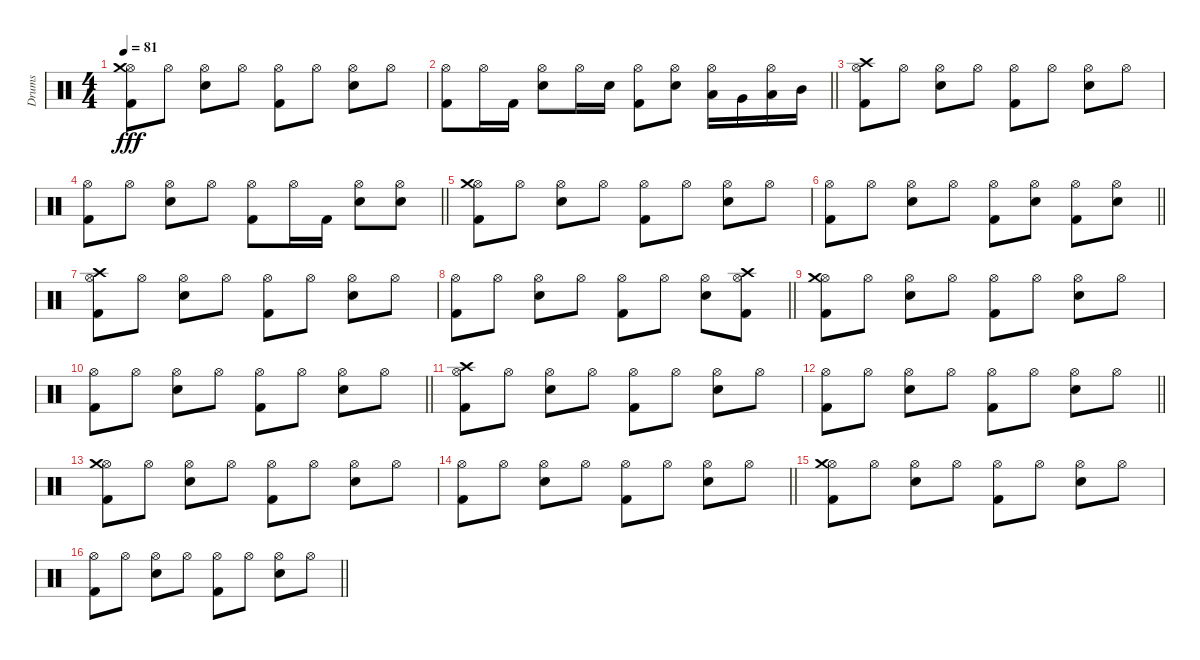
\track ("Drums" "Drums") {instrument percussion}
\staff {score}
\articulation defaults
\ts (4 4)
\tempo 81
\clef neutral
\ks c
("Hi-Hat (open)" "Crash medium (hit)" "Kick (hit) 2").8{dy fff} "Hi-Hat (open)".8 ("Hi-Hat (open)" "Electric Snare (hit)").8 "Hi-Hat (open)".8 ("Hi-Hat (open)" "Kick (hit) 2").8 "Hi-Hat (open)".8 ("Hi-Hat (open)" "Electric Snare (hit)").8 "Hi-Hat (open)".8 |
\barLineRight lightlight
("Hi-Hat (open)" "Kick (hit) 2").8 "Hi-Hat (open)".16 "Kick (hit) 2".16 ("Hi-Hat (open)" "Electric Snare (hit)").8 "Hi-Hat (open)".16 "Electric Snare (hit)".16 ("Hi-Hat (open)" "Kick (hit) 2").8 ("Hi-Hat (open)" "Electric Snare (hit)").8 ("Hi-Hat (open)" "Low Floor Tom (hit)").16 "Very Low Tom (hit)".16 ("Hi-Hat (open)" "Low Tom (hit)").16 "Mid Tom (hit)".16 |
("Hi-Hat (open)" "Crash high (hit)" "Kick (hit) 2").8{volume 10} "Hi-Hat (open)".8 ("Hi-Hat (open)" "Electric Snare (hit)").8 "Hi-Hat (open)".8 ("Hi-Hat (open)" "Kick (hit) 2").8 "Hi-Hat (open)".8 ("Hi-Hat (open)" "Electric Snare (hit)").8 "Hi-Hat (open)".8 |
\barLineRight lightlight
("Hi-Hat (open)" "Kick (hit) 2").8 "Hi-Hat (open)".8 ("Hi-Hat (open)" "Electric Snare (hit)").8 "Hi-Hat (open)".8 ("Hi-Hat (open)" "Kick (hit) 2").8 "Hi-Hat (open)".16 "Kick (hit) 2".16 ("Hi-Hat (open)" "Electric Snare (hit)").8 ("Hi-Hat (open)" "Electric Snare (hit)").8 |
("Hi-Hat (open)" "Crash medium (hit)" "Kick (hit) 2").8 "Hi-Hat (open)".8 ("Hi-Hat (open)" "Electric Snare (hit)").8 "Hi-Hat (open)".8 ("Hi-Hat (open)" "Kick (hit) 2").8 "Hi-Hat (open)".8 ("Hi-Hat (open)" "Electric Snare (hit)").8 "Hi-Hat (open)".8 |
\barLineRight lightlight
("Hi-Hat (open)" "Kick (hit) 2").8 "Hi-Hat (open)".8 ("Hi-Hat (open)" "Electric Snare (hit)").8 "Hi-Hat (open)".8 ("Hi-Hat (open)" "Kick (hit) 2").8 ("Hi-Hat (open)" "Electric Snare (hit)").8 ("Hi-Hat (open)" "Kick (hit) 2").8 ("Hi-Hat (open)" "Electric Snare (hit)").8 |
("Hi-Hat (open)" "Crash high (hit)" "Kick (hit) 2").8{volume 5} "Hi-Hat (open)".8 ("Hi-Hat (open)" "Electric Snare (hit)").8 "Hi-Hat (open)".8 ("Hi-Hat (open)" "Kick (hit) 2").8 "Hi-Hat (open)".8 ("Hi-Hat (open)" "Electric Snare (hit)").8 "Hi-Hat (open)".8 |
\barLineRight lightlight
("Hi-Hat (open)" "Kick (hit) 2").8 "Hi-Hat (open)".8 ("Hi-Hat (open)" "Electric Snare (hit)").8 "Hi-Hat (open)".8 ("Hi-Hat (open)" "Kick (hit) 2").8 "Hi-Hat (open)".8 ("Hi-Hat (open)" "Electric Snare (hit)").8 ("Hi-Hat (open)" "Crash high (hit)" "Kick (hit) 2").8 |
("Hi-Hat (open)" "Crash medium (hit)" "Kick (hit) 2").8 "Hi-Hat (open)".8 ("Hi-Hat (open)" "Electric Snare (hit)").8 "Hi-Hat (open)".8 ("Hi-Hat (open)" "Kick (hit) 2").8 "Hi-Hat (open)".8 ("Hi-Hat (open)" "Electric Snare (hit)").8 "Hi-Hat (open)".8 |
\barLineRight lightlight
("Hi-Hat (open)" "Kick (hit) 2").8 "Hi-Hat (open)".8 ("Hi-Hat (open)" "Electric Snare (hit)").8 "Hi-Hat (open)".8 ("Hi-Hat (open)" "Kick (hit) 2").8 "Hi-Hat (open)".8 ("Hi-Hat (open)" "Electric Snare (hit)").8 "Hi-Hat (open)".8 |
("Hi-Hat (open)" "Crash high (hit)" "Kick (hit) 2").8{volume 0} "Hi-Hat (open)".8 ("Hi-Hat (open)" "Electric Snare (hit)").8 "Hi-Hat (open)".8 ("Hi-Hat (open)" "Kick (hit) 2").8 "Hi-Hat (open)".8 ("Hi-Hat (open)" "Electric Snare (hit)").8 "Hi-Hat (open)".8 |
\barLineRight lightlight
("Hi-Hat (open)" "Kick (hit) 2").8 "Hi-Hat (open)".8 ("Hi-Hat (open)" "Electric Snare (hit)").8 "Hi-Hat (open)".8 ("Hi-Hat (open)" "Kick (hit) 2").8 "Hi-Hat (open)".8 ("Hi-Hat (open)" "Electric Snare (hit)").8 "Hi-Hat (open)".8 |
("Hi-Hat (open)" "Crash medium (hit)" "Kick (hit) 2").8 "Hi-Hat (open)".8 ("Hi-Hat (open)" "Electric Snare (hit)").8 "Hi-Hat (open)".8 ("Hi-Hat (open)" "Kick (hit) 2").8 "Hi-Hat (open)".8 ("Hi-Hat (open)" "Electric Snare (hit)").8 "Hi-Hat (open)".8 |
\barLineRight lightlight
("Hi-Hat (open)" "Kick (hit) 2").8 "Hi-Hat (open)".8 ("Hi-Hat (open)" "Electric Snare (hit)").8 "Hi-Hat (open)".8 ("Hi-Hat (open)" "Kick (hit) 2").8 "Hi-Hat (open)".8 ("Hi-Hat (open)" "Electric Snare (hit)").8 "Hi-Hat (open)".8 |
("Hi-Hat (open)" "Crash medium (hit)" "Kick (hit) 2").8 "Hi-Hat (open)".8 ("Hi-Hat (open)" "Electric Snare (hit)").8 "Hi-Hat (open)".8 ("Hi-Hat (open)" "Kick (hit) 2").8 "Hi-Hat (open)".8 ("Hi-Hat (open)" "Electric Snare (hit)").8 "Hi-Hat (open)".8 |
\barLineRight lightlight
("Hi-Hat (open)" "Kick (hit) 2").8 "Hi-Hat (open)".8 ("Hi-Hat (open)" "Electric Snare (hit)").8 "Hi-Hat (open)".8 ("Hi-Hat (open)" "Kick (hit) 2").8 "Hi-Hat (open)".8 ("Hi-Hat (open)" "Electric Snare (hit)").8 "Hi-Hat (open)".8
